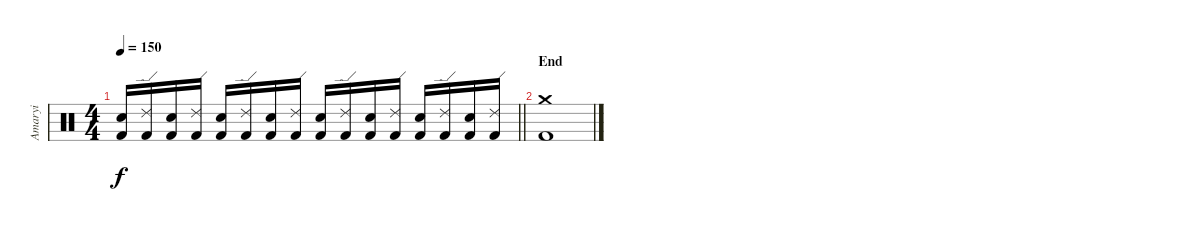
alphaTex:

\track ("Amaryi" "Amaryi") {instrument percussion}
\staff {score}
\articulation defaults
\ts (4 4)
\tempo 150
\clef neutral
\barLineRight lightlight
\ks c
("Electric Snare (hit)" "Kick (hit) 2").16{dy f} ("Ride (edge) 2" "Kick (hit) 2").16 ("Electric Snare (hit)" "Kick (hit) 2").16 ("Ride (edge) 2" "Kick (hit) 2").16 ("Electric Snare (hit)" "Kick (hit) 2").16 ("Ride (edge) 2" "Kick (hit) 2").16 ("Electric Snare (hit)" "Kick (hit) 2").16 ("Ride (edge) 2" "Kick (hit) 2").16 ("Electric Snare (hit)" "Kick (hit) 2").16 ("Ride (edge) 2" "Kick (hit) 2").16 ("Electric Snare (hit)" "Kick (hit) 2").16 ("Ride (edge) 2" "Kick (hit) 2").16 ("Electric Snare (hit)" "Kick (hit) 2").16 ("Ride (edge) 2" "Kick (hit) 2").16 ("Electric Snare (hit)" "Kick (hit) 2").16 ("Ride (edge) 2" "Kick (hit) 2").16 |
\section ("" "End")
("Kick (hit) 2" "Crash medium (hit)").1
